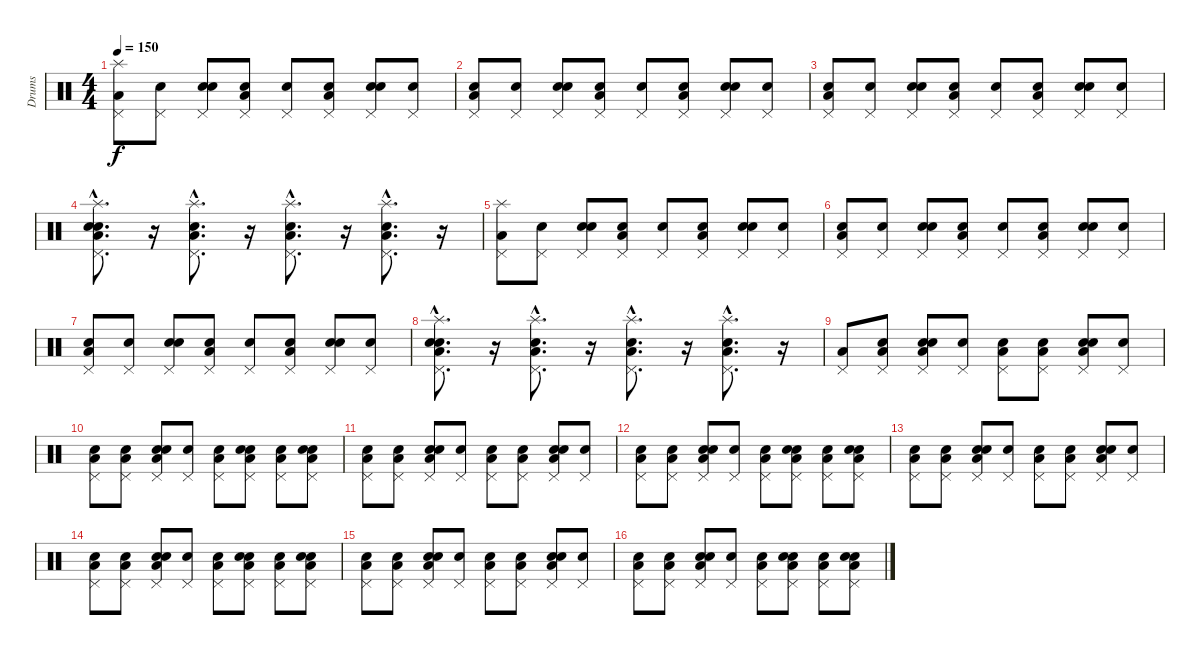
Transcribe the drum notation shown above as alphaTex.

\track ("Drums" "Drums") {instrument percussion}
\staff {score}
\articulation defaults
\ts (4 4)
\tempo 150
\clef neutral
\ks c
("Low Floor Tom (hit)" "Pedal Hi-Hat (hit)" "Splash (hit)").8{dy f} ("Snare (hit)" "Pedal Hi-Hat (hit)").8 ("Snare (hit)" "Electric Snare (hit)" "Pedal Hi-Hat (hit)").8 ("Snare (hit)" "Low Floor Tom (hit)" "Pedal Hi-Hat (hit)").8 ("Snare (hit)" "Pedal Hi-Hat (hit)").8 ("Snare (hit)" "Low Floor Tom (hit)" "Pedal Hi-Hat (hit)").8 ("Snare (hit)" "Electric Snare (hit)" "Pedal Hi-Hat (hit)").8 ("Snare (hit)" "Pedal Hi-Hat (hit)").8 |
("Snare (hit)" "Low Floor Tom (hit)" "Pedal Hi-Hat (hit)").8 ("Snare (hit)" "Pedal Hi-Hat (hit)").8 ("Snare (hit)" "Electric Snare (hit)" "Pedal Hi-Hat (hit)").8 ("Snare (hit)" "Low Floor Tom (hit)" "Pedal Hi-Hat (hit)").8 ("Snare (hit)" "Pedal Hi-Hat (hit)").8 ("Snare (hit)" "Low Floor Tom (hit)" "Pedal Hi-Hat (hit)").8 ("Snare (hit)" "Electric Snare (hit)" "Pedal Hi-Hat (hit)").8 ("Snare (hit)" "Pedal Hi-Hat (hit)").8 |
("Snare (hit)" "Low Floor Tom (hit)" "Pedal Hi-Hat (hit)").8 ("Snare (hit)" "Pedal Hi-Hat (hit)").8 ("Snare (hit)" "Electric Snare (hit)" "Pedal Hi-Hat (hit)").8 ("Snare (hit)" "Low Floor Tom (hit)" "Pedal Hi-Hat (hit)").8 ("Snare (hit)" "Pedal Hi-Hat (hit)").8 ("Snare (hit)" "Low Floor Tom (hit)" "Pedal Hi-Hat (hit)").8 ("Snare (hit)" "Electric Snare (hit)" "Pedal Hi-Hat (hit)").8 ("Snare (hit)" "Pedal Hi-Hat (hit)").8 |
("Snare (hit)"{hac} "Electric Snare (hit)"{hac} "Low Floor Tom (hit)"{hac} "Pedal Hi-Hat (hit)"{hac} "Splash (hit)"{hac}).8{d} r.16 ("Electric Snare (hit)"{hac} "Low Floor Tom (hit)"{hac} "Pedal Hi-Hat (hit)"{hac} "Splash (hit)"{hac}).8{d} r.16 ("Electric Snare (hit)"{hac} "Low Floor Tom (hit)"{hac} "Pedal Hi-Hat (hit)"{hac} "Splash (hit)"{hac}).8{d} r.16 ("Electric Snare (hit)"{hac} "Low Floor Tom (hit)"{hac} "Pedal Hi-Hat (hit)"{hac} "Splash (hit)"{hac}).8{d} r.16 |
("Low Floor Tom (hit)" "Pedal Hi-Hat (hit)" "Splash (hit)").8 ("Snare (hit)" "Pedal Hi-Hat (hit)").8 ("Snare (hit)" "Electric Snare (hit)" "Pedal Hi-Hat (hit)").8 ("Snare (hit)" "Low Floor Tom (hit)" "Pedal Hi-Hat (hit)").8 ("Snare (hit)" "Pedal Hi-Hat (hit)").8 ("Snare (hit)" "Low Floor Tom (hit)" "Pedal Hi-Hat (hit)").8 ("Snare (hit)" "Electric Snare (hit)" "Pedal Hi-Hat (hit)").8 ("Snare (hit)" "Pedal Hi-Hat (hit)").8 |
("Snare (hit)" "Low Floor Tom (hit)" "Pedal Hi-Hat (hit)").8 ("Snare (hit)" "Pedal Hi-Hat (hit)").8 ("Snare (hit)" "Electric Snare (hit)" "Pedal Hi-Hat (hit)").8 ("Snare (hit)" "Low Floor Tom (hit)" "Pedal Hi-Hat (hit)").8 ("Snare (hit)" "Pedal Hi-Hat (hit)").8 ("Snare (hit)" "Low Floor Tom (hit)" "Pedal Hi-Hat (hit)").8 ("Snare (hit)" "Electric Snare (hit)" "Pedal Hi-Hat (hit)").8 ("Snare (hit)" "Pedal Hi-Hat (hit)").8 |
("Snare (hit)" "Low Floor Tom (hit)" "Pedal Hi-Hat (hit)").8 ("Snare (hit)" "Pedal Hi-Hat (hit)").8 ("Snare (hit)" "Electric Snare (hit)" "Pedal Hi-Hat (hit)").8 ("Snare (hit)" "Low Floor Tom (hit)" "Pedal Hi-Hat (hit)").8 ("Snare (hit)" "Pedal Hi-Hat (hit)").8 ("Snare (hit)" "Low Floor Tom (hit)" "Pedal Hi-Hat (hit)").8 ("Snare (hit)" "Electric Snare (hit)" "Pedal Hi-Hat (hit)").8 ("Snare (hit)" "Pedal Hi-Hat (hit)").8 |
("Snare (hit)"{hac} "Electric Snare (hit)"{hac} "Low Floor Tom (hit)"{hac} "Pedal Hi-Hat (hit)"{hac} "Splash (hit)"{hac}).8{d} r.16 ("Electric Snare (hit)"{hac} "Low Floor Tom (hit)"{hac} "Pedal Hi-Hat (hit)"{hac} "Splash (hit)"{hac}).8{d} r.16 ("Electric Snare (hit)"{hac} "Low Floor Tom (hit)"{hac} "Pedal Hi-Hat (hit)"{hac} "Splash (hit)"{hac}).8{d} r.16 ("Electric Snare (hit)"{hac} "Low Floor Tom (hit)"{hac} "Pedal Hi-Hat (hit)"{hac} "Splash (hit)"{hac}).8{d} r.16 |
("Low Floor Tom (hit)" "Pedal Hi-Hat (hit)").8 ("Snare (hit)" "Low Floor Tom (hit)" "Pedal Hi-Hat (hit)").8 ("Snare (hit)" "Electric Snare (hit)" "Low Floor Tom (hit)" "Pedal Hi-Hat (hit)").8 ("Snare (hit)" "Pedal Hi-Hat (hit)").8 ("Snare (hit)" "Low Floor Tom (hit)" "Pedal Hi-Hat (hit)").8 ("Snare (hit)" "Low Floor Tom (hit)" "Pedal Hi-Hat (hit)").8 ("Snare (hit)" "Electric Snare (hit)" "Low Floor Tom (hit)" "Pedal Hi-Hat (hit)").8 ("Snare (hit)" "Pedal Hi-Hat (hit)").8 |
("Snare (hit)" "Low Floor Tom (hit)" "Pedal Hi-Hat (hit)").8 ("Snare (hit)" "Low Floor Tom (hit)" "Pedal Hi-Hat (hit)").8 ("Snare (hit)" "Electric Snare (hit)" "Low Floor Tom (hit)" "Pedal Hi-Hat (hit)").8 ("Snare (hit)" "Pedal Hi-Hat (hit)").8 ("Snare (hit)" "Low Floor Tom (hit)" "Pedal Hi-Hat (hit)").8 ("Snare (hit)" "Electric Snare (hit)" "Low Floor Tom (hit)" "Pedal Hi-Hat (hit)").8 ("Snare (hit)" "Low Floor Tom (hit)" "Pedal Hi-Hat (hit)").8 ("Snare (hit)" "Electric Snare (hit)" "Low Floor Tom (hit)" "Pedal Hi-Hat (hit)").8 |
("Snare (hit)" "Low Floor Tom (hit)" "Pedal Hi-Hat (hit)").8 ("Snare (hit)" "Low Floor Tom (hit)" "Pedal Hi-Hat (hit)").8 ("Snare (hit)" "Electric Snare (hit)" "Low Floor Tom (hit)" "Pedal Hi-Hat (hit)").8 ("Snare (hit)" "Pedal Hi-Hat (hit)").8 ("Snare (hit)" "Low Floor Tom (hit)" "Pedal Hi-Hat (hit)").8 ("Snare (hit)" "Low Floor Tom (hit)" "Pedal Hi-Hat (hit)").8 ("Snare (hit)" "Electric Snare (hit)" "Low Floor Tom (hit)" "Pedal Hi-Hat (hit)").8 ("Snare (hit)" "Pedal Hi-Hat (hit)").8 |
("Snare (hit)" "Low Floor Tom (hit)" "Pedal Hi-Hat (hit)").8 ("Snare (hit)" "Low Floor Tom (hit)" "Pedal Hi-Hat (hit)").8 ("Snare (hit)" "Electric Snare (hit)" "Low Floor Tom (hit)" "Pedal Hi-Hat (hit)").8 ("Snare (hit)" "Pedal Hi-Hat (hit)").8 ("Snare (hit)" "Low Floor Tom (hit)" "Pedal Hi-Hat (hit)").8 ("Snare (hit)" "Electric Snare (hit)" "Low Floor Tom (hit)" "Pedal Hi-Hat (hit)").8 ("Snare (hit)" "Low Floor Tom (hit)" "Pedal Hi-Hat (hit)").8 ("Snare (hit)" "Electric Snare (hit)" "Low Floor Tom (hit)" "Pedal Hi-Hat (hit)").8 |
("Snare (hit)" "Low Floor Tom (hit)" "Pedal Hi-Hat (hit)").8 ("Snare (hit)" "Low Floor Tom (hit)" "Pedal Hi-Hat (hit)").8 ("Snare (hit)" "Electric Snare (hit)" "Low Floor Tom (hit)" "Pedal Hi-Hat (hit)").8 ("Snare (hit)" "Pedal Hi-Hat (hit)").8 ("Snare (hit)" "Low Floor Tom (hit)" "Pedal Hi-Hat (hit)").8 ("Snare (hit)" "Low Floor Tom (hit)" "Pedal Hi-Hat (hit)").8 ("Snare (hit)" "Electric Snare (hit)" "Low Floor Tom (hit)" "Pedal Hi-Hat (hit)").8 ("Snare (hit)" "Pedal Hi-Hat (hit)").8 |
("Snare (hit)" "Low Floor Tom (hit)" "Pedal Hi-Hat (hit)").8 ("Snare (hit)" "Low Floor Tom (hit)" "Pedal Hi-Hat (hit)").8 ("Snare (hit)" "Electric Snare (hit)" "Low Floor Tom (hit)" "Pedal Hi-Hat (hit)").8 ("Snare (hit)" "Pedal Hi-Hat (hit)").8 ("Snare (hit)" "Low Floor Tom (hit)" "Pedal Hi-Hat (hit)").8 ("Snare (hit)" "Electric Snare (hit)" "Low Floor Tom (hit)" "Pedal Hi-Hat (hit)").8 ("Snare (hit)" "Low Floor Tom (hit)" "Pedal Hi-Hat (hit)").8 ("Snare (hit)" "Electric Snare (hit)" "Low Floor Tom (hit)" "Pedal Hi-Hat (hit)").8 |
("Snare (hit)" "Low Floor Tom (hit)" "Pedal Hi-Hat (hit)").8 ("Snare (hit)" "Low Floor Tom (hit)" "Pedal Hi-Hat (hit)").8 ("Snare (hit)" "Electric Snare (hit)" "Low Floor Tom (hit)" "Pedal Hi-Hat (hit)").8 ("Snare (hit)" "Pedal Hi-Hat (hit)").8 ("Snare (hit)" "Low Floor Tom (hit)" "Pedal Hi-Hat (hit)").8 ("Snare (hit)" "Low Floor Tom (hit)" "Pedal Hi-Hat (hit)").8 ("Snare (hit)" "Electric Snare (hit)" "Low Floor Tom (hit)" "Pedal Hi-Hat (hit)").8 ("Snare (hit)" "Pedal Hi-Hat (hit)").8 |
("Snare (hit)" "Low Floor Tom (hit)" "Pedal Hi-Hat (hit)").8 ("Snare (hit)" "Low Floor Tom (hit)" "Pedal Hi-Hat (hit)").8 ("Snare (hit)" "Electric Snare (hit)" "Low Floor Tom (hit)" "Pedal Hi-Hat (hit)").8 ("Snare (hit)" "Pedal Hi-Hat (hit)").8 ("Snare (hit)" "Low Floor Tom (hit)" "Pedal Hi-Hat (hit)").8 ("Snare (hit)" "Electric Snare (hit)" "Low Floor Tom (hit)" "Pedal Hi-Hat (hit)").8 ("Snare (hit)" "Low Floor Tom (hit)" "Pedal Hi-Hat (hit)").8 ("Snare (hit)" "Electric Snare (hit)" "Low Floor Tom (hit)" "Pedal Hi-Hat (hit)").8
